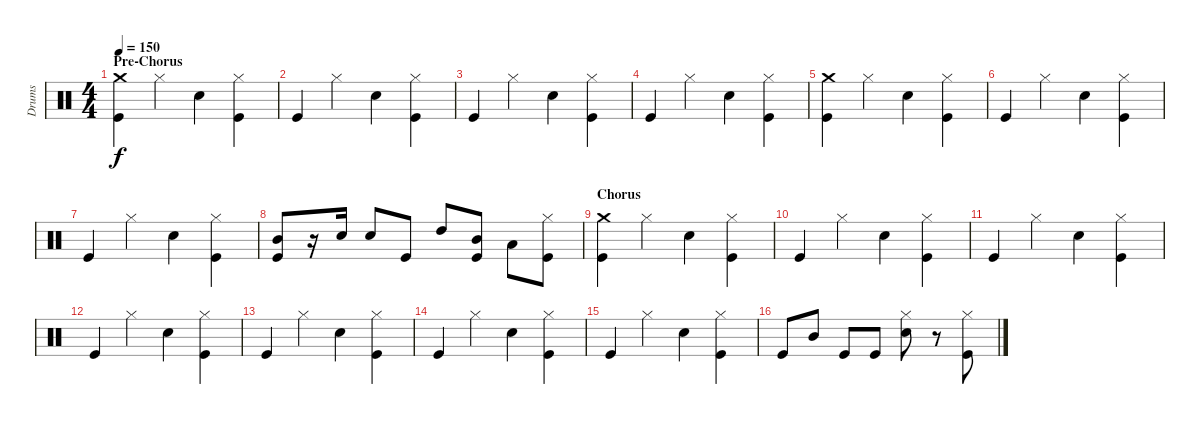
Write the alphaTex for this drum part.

\track ("Drums" "Drums") {instrument percussion}
\staff {score}
\articulation defaults
\ts (4 4)
\section ("" "Pre-Chorus")
\tempo 150
\clef neutral
\ks c
("Crash medium (hit)" "Kick (hit)").4{dy f} "Hi-Hat (closed)".4 "Electric Snare (hit)".4 ("Hi-Hat (closed)" "Kick (hit)").4 |
"Kick (hit)".4 "Hi-Hat (closed)".4 "Electric Snare (hit)".4 ("Hi-Hat (closed)" "Kick (hit)").4 |
"Kick (hit)".4 "Hi-Hat (closed)".4 "Electric Snare (hit)".4 ("Hi-Hat (closed)" "Kick (hit)").4 |
"Kick (hit)".4 "Hi-Hat (closed)".4 "Electric Snare (hit)".4 ("Hi-Hat (closed)" "Kick (hit)").4 |
("Crash medium (hit)" "Kick (hit)").4 "Hi-Hat (closed)".4 "Electric Snare (hit)".4 ("Hi-Hat (closed)" "Kick (hit)").4 |
"Kick (hit)".4 "Hi-Hat (closed)".4 "Electric Snare (hit)".4 ("Hi-Hat (closed)" "Kick (hit)").4 |
"Kick (hit)".4 "Hi-Hat (closed)".4 "Electric Snare (hit)".4 ("Hi-Hat (closed)" "Kick (hit)").4 |
("Mid Tom (hit)" "Kick (hit)").8 r.16 "Electric Snare (hit)".16 "Electric Snare (hit)".8 "Kick (hit)".8 "High Tom (hit)".8 ("Mid Tom (hit)" "Kick (hit)").8 "Low Floor Tom (hit)".8 ("Hi-Hat (closed)" "Kick (hit)").8 |
\section ("" "Chorus")
("Crash medium (hit)" "Kick (hit)").4 "Hi-Hat (closed)".4 "Electric Snare (hit)".4 ("Hi-Hat (closed)" "Kick (hit)").4 |
"Kick (hit)".4 "Hi-Hat (closed)".4 "Electric Snare (hit)".4 ("Hi-Hat (closed)" "Kick (hit)").4 |
"Kick (hit)".4 "Hi-Hat (closed)".4 "Electric Snare (hit)".4 ("Hi-Hat (closed)" "Kick (hit)").4 |
"Kick (hit)".4 "Hi-Hat (closed)".4 "Electric Snare (hit)".4 ("Hi-Hat (closed)" "Kick (hit)").4 |
"Kick (hit)".4 "Hi-Hat (closed)".4 "Electric Snare (hit)".4 ("Hi-Hat (closed)" "Kick (hit)").4 |
"Kick (hit)".4 "Hi-Hat (closed)".4 "Electric Snare (hit)".4 ("Hi-Hat (closed)" "Kick (hit)").4 |
"Kick (hit)".4 "Hi-Hat (closed)".4 "Electric Snare (hit)".4 ("Hi-Hat (closed)" "Kick (hit)").4 |
"Kick (hit)".8 "Mid Tom (hit)".8 "Kick (hit)".8 "Kick (hit)".8 ("Hi-Hat (closed)" "Electric Snare (hit)").8 r.8 ("Hi-Hat (closed)" "Kick (hit)").8
